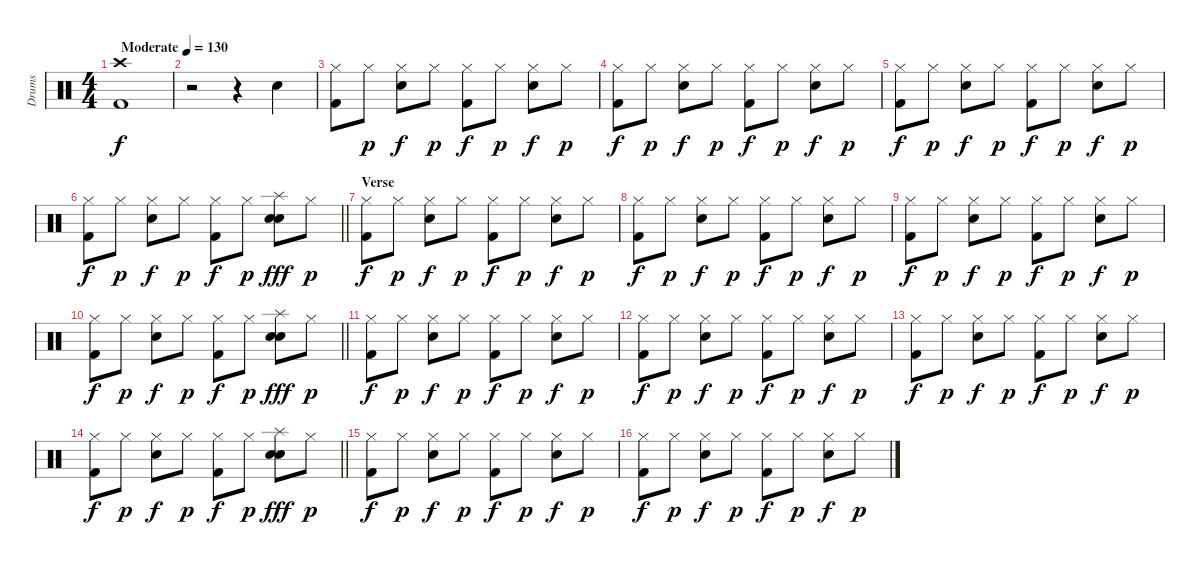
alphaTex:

\track ("Drums" "Drums") {instrument percussion}
\staff {score}
\articulation defaults
\ts (4 4)
\tempo (130 "Moderate")
\clef neutral
\ks c
("Crash high (hit)" "Kick (hit) 2").1{dy f} |
r.2 r.4 "Electric Snare (hit)".4 |
("Hi-Hat (closed)" "Kick (hit) 2").8 "Hi-Hat (closed)".8{dy p} ("Hi-Hat (closed)" "Electric Snare (hit)").8{dy f} "Hi-Hat (closed)".8{dy p} ("Hi-Hat (closed)" "Kick (hit) 2").8{dy f} "Hi-Hat (closed)".8{dy p} ("Hi-Hat (closed)" "Electric Snare (hit)").8{dy f} "Hi-Hat (closed)".8{dy p} |
("Hi-Hat (closed)" "Kick (hit) 2").8{dy f} "Hi-Hat (closed)".8{dy p} ("Hi-Hat (closed)" "Electric Snare (hit)").8{dy f} "Hi-Hat (closed)".8{dy p} ("Hi-Hat (closed)" "Kick (hit) 2").8{dy f} "Hi-Hat (closed)".8{dy p} ("Hi-Hat (closed)" "Electric Snare (hit)").8{dy f} "Hi-Hat (closed)".8{dy p} |
("Hi-Hat (closed)" "Kick (hit) 2").8{dy f} "Hi-Hat (closed)".8{dy p} ("Hi-Hat (closed)" "Electric Snare (hit)").8{dy f} "Hi-Hat (closed)".8{dy p} ("Hi-Hat (closed)" "Kick (hit) 2").8{dy f} "Hi-Hat (closed)".8{dy p} ("Hi-Hat (closed)" "Electric Snare (hit)").8{dy f} "Hi-Hat (closed)".8{dy p} |
\barLineRight lightlight
("Hi-Hat (closed)" "Kick (hit) 2").8{dy f} "Hi-Hat (closed)".8{dy p} ("Hi-Hat (closed)" "Electric Snare (hit)").8{dy f} "Hi-Hat (closed)".8{dy p} ("Hi-Hat (closed)" "Kick (hit) 2").8{dy f} "Hi-Hat (closed)".8{dy p} ("Splash (hit)" "Electric Snare (hit)" "Snare (hit) 2").8{dy fff} "Hi-Hat (closed)".8{dy p} |
\section ("" "Verse")
("Hi-Hat (closed)" "Kick (hit) 2").8{dy f} "Hi-Hat (closed)".8{dy p} ("Hi-Hat (closed)" "Electric Snare (hit)").8{dy f} "Hi-Hat (closed)".8{dy p} ("Hi-Hat (closed)" "Kick (hit) 2").8{dy f} "Hi-Hat (closed)".8{dy p} ("Hi-Hat (closed)" "Electric Snare (hit)").8{dy f} "Hi-Hat (closed)".8{dy p} |
("Hi-Hat (closed)" "Kick (hit) 2").8{dy f} "Hi-Hat (closed)".8{dy p} ("Hi-Hat (closed)" "Electric Snare (hit)").8{dy f} "Hi-Hat (closed)".8{dy p} ("Hi-Hat (closed)" "Kick (hit) 2").8{dy f} "Hi-Hat (closed)".8{dy p} ("Hi-Hat (closed)" "Electric Snare (hit)").8{dy f} "Hi-Hat (closed)".8{dy p} |
("Hi-Hat (closed)" "Kick (hit) 2").8{dy f} "Hi-Hat (closed)".8{dy p} ("Hi-Hat (closed)" "Electric Snare (hit)").8{dy f} "Hi-Hat (closed)".8{dy p} ("Hi-Hat (closed)" "Kick (hit) 2").8{dy f} "Hi-Hat (closed)".8{dy p} ("Hi-Hat (closed)" "Electric Snare (hit)").8{dy f} "Hi-Hat (closed)".8{dy p} |
\barLineRight lightlight
("Hi-Hat (closed)" "Kick (hit) 2").8{dy f} "Hi-Hat (closed)".8{dy p} ("Hi-Hat (closed)" "Electric Snare (hit)").8{dy f} "Hi-Hat (closed)".8{dy p} ("Hi-Hat (closed)" "Kick (hit) 2").8{dy f} "Hi-Hat (closed)".8{dy p} ("Splash (hit)" "Electric Snare (hit)" "Snare (hit) 2").8{dy fff} "Hi-Hat (closed)".8{dy p} |
("Hi-Hat (closed)" "Kick (hit) 2").8{dy f} "Hi-Hat (closed)".8{dy p} ("Hi-Hat (closed)" "Electric Snare (hit)").8{dy f} "Hi-Hat (closed)".8{dy p} ("Hi-Hat (closed)" "Kick (hit) 2").8{dy f} "Hi-Hat (closed)".8{dy p} ("Hi-Hat (closed)" "Electric Snare (hit)").8{dy f} "Hi-Hat (closed)".8{dy p} |
("Hi-Hat (closed)" "Kick (hit) 2").8{dy f} "Hi-Hat (closed)".8{dy p} ("Hi-Hat (closed)" "Electric Snare (hit)").8{dy f} "Hi-Hat (closed)".8{dy p} ("Hi-Hat (closed)" "Kick (hit) 2").8{dy f} "Hi-Hat (closed)".8{dy p} ("Hi-Hat (closed)" "Electric Snare (hit)").8{dy f} "Hi-Hat (closed)".8{dy p} |
("Hi-Hat (closed)" "Kick (hit) 2").8{dy f} "Hi-Hat (closed)".8{dy p} ("Hi-Hat (closed)" "Electric Snare (hit)").8{dy f} "Hi-Hat (closed)".8{dy p} ("Hi-Hat (closed)" "Kick (hit) 2").8{dy f} "Hi-Hat (closed)".8{dy p} ("Hi-Hat (closed)" "Electric Snare (hit)").8{dy f} "Hi-Hat (closed)".8{dy p} |
\barLineRight lightlight
("Hi-Hat (closed)" "Kick (hit) 2").8{dy f} "Hi-Hat (closed)".8{dy p} ("Hi-Hat (closed)" "Electric Snare (hit)").8{dy f} "Hi-Hat (closed)".8{dy p} ("Hi-Hat (closed)" "Kick (hit) 2").8{dy f} "Hi-Hat (closed)".8{dy p} ("Splash (hit)" "Electric Snare (hit)" "Snare (hit) 2").8{dy fff} "Hi-Hat (closed)".8{dy p} |
("Hi-Hat (closed)" "Kick (hit) 2").8{dy f} "Hi-Hat (closed)".8{dy p} ("Hi-Hat (closed)" "Electric Snare (hit)").8{dy f} "Hi-Hat (closed)".8{dy p} ("Hi-Hat (closed)" "Kick (hit) 2").8{dy f} "Hi-Hat (closed)".8{dy p} ("Hi-Hat (closed)" "Electric Snare (hit)").8{dy f} "Hi-Hat (closed)".8{dy p} |
("Hi-Hat (closed)" "Kick (hit) 2").8{dy f} "Hi-Hat (closed)".8{dy p} ("Hi-Hat (closed)" "Electric Snare (hit)").8{dy f} "Hi-Hat (closed)".8{dy p} ("Hi-Hat (closed)" "Kick (hit) 2").8{dy f} "Hi-Hat (closed)".8{dy p} ("Hi-Hat (closed)" "Electric Snare (hit)").8{dy f} "Hi-Hat (closed)".8{dy p}
